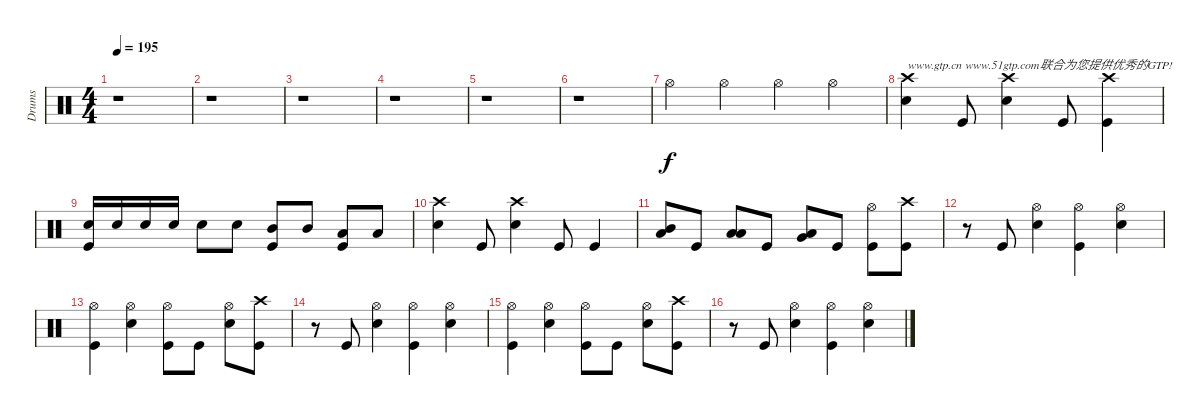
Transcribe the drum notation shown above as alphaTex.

\track ("Drums" "Drums") {instrument percussion}
\staff {score}
\articulation defaults
\ts (4 4)
\tempo 195
\clef neutral
\ks c
r.1{dy f} |
r.1 |
r.1 |
r.1 |
r.1 |
r.1 |
"Hi-Hat (open)".4 "Hi-Hat (open)".4 "Hi-Hat (open)".4 "Hi-Hat (open)".4 |
("Crash high (hit)" "Electric Snare (hit)").4{txt "www.gtp.cn www.51gtp.com联合为您提供优秀的GTP!"} "Kick (hit)".8 ("Crash high (hit)" "Electric Snare (hit)").4 "Kick (hit)".8 ("Crash high (hit)" "Kick (hit)").4 |
("Electric Snare (hit)" "Kick (hit)").16 "Electric Snare (hit)".16 "Electric Snare (hit)".16 "Electric Snare (hit)".16 "Electric Snare (hit)".8 "Electric Snare (hit)".8 ("Mid Tom (hit)" "Kick (hit)").8 "Mid Tom (hit)".8 ("Low Tom (hit)" "Kick (hit)").8 "Low Tom (hit)".8 |
("Crash high (hit)" "Electric Snare (hit)").4 "Kick (hit)".8 ("Crash high (hit)" "Electric Snare (hit)").4 "Kick (hit)".8 "Kick (hit)".4 |
("Mid Tom (hit)" "Low Tom (hit)").8 "Kick (hit)".8 ("Low Tom (hit)" "Low Tom (hit)").8 "Kick (hit)".8 ("Very Low Tom (hit)" "Low Floor Tom (hit)").8 "Kick (hit)".8 ("Hi-Hat (open)" "Kick (hit)").8 ("Crash high (hit)" "Kick (hit)").8 |
r.8 "Kick (hit)".8 ("Hi-Hat (open)" "Electric Snare (hit)").4 ("Hi-Hat (open)" "Kick (hit)").4 ("Hi-Hat (open)" "Electric Snare (hit)").4 |
("Hi-Hat (open)" "Kick (hit)").4 ("Hi-Hat (open)" "Electric Snare (hit)").4 ("Hi-Hat (open)" "Kick (hit)").8 "Kick (hit)".8 ("Hi-Hat (open)" "Electric Snare (hit)").8 ("Crash high (hit)" "Kick (hit)").8 |
r.8 "Kick (hit)".8 ("Hi-Hat (open)" "Electric Snare (hit)").4 ("Hi-Hat (open)" "Kick (hit)").4 ("Hi-Hat (open)" "Electric Snare (hit)").4 |
("Hi-Hat (open)" "Kick (hit)").4 ("Hi-Hat (open)" "Electric Snare (hit)").4 ("Hi-Hat (open)" "Kick (hit)").8 "Kick (hit)".8 ("Hi-Hat (open)" "Electric Snare (hit)").8 ("Crash high (hit)" "Kick (hit)").8 |
r.8 "Kick (hit)".8 ("Hi-Hat (open)" "Electric Snare (hit)").4 ("Hi-Hat (open)" "Kick (hit)").4 ("Hi-Hat (open)" "Electric Snare (hit)").4
